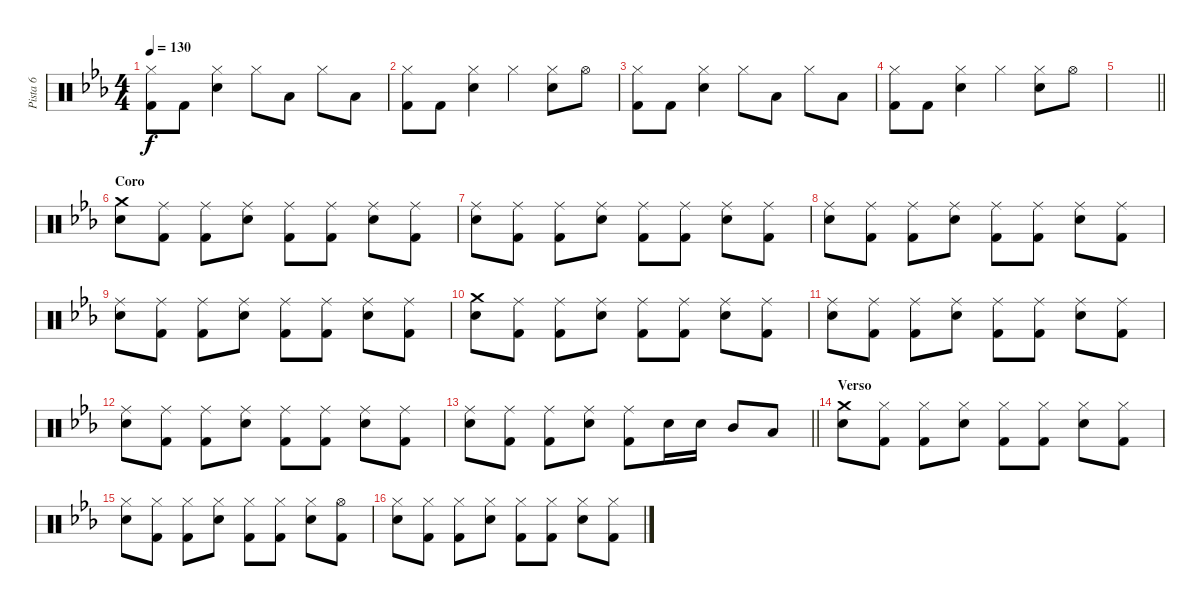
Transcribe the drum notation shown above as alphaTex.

\track ("Pista 6" "Pista 6") {instrument percussion}
\staff {score}
\articulation defaults
\ts (4 4)
\tempo 130
\clef neutral
\ks eb
("Hi-Hat (closed)" "Kick (hit) 2").8{dy f} "Kick (hit) 2".8 ("Hi-Hat (closed)" "Snare (hit) 2").4 "Hi-Hat (closed)".8 "Low Tom (hit)".8 "Hi-Hat (closed)".8 "Low Tom (hit)".8 |
("Hi-Hat (closed)" "Kick (hit) 2").8 "Kick (hit) 2".8 ("Hi-Hat (closed)" "Snare (hit) 2").4 "Hi-Hat (closed)".4 ("Hi-Hat (closed)" "Snare (hit) 2").8 "Hi-Hat (open)".8 |
("Hi-Hat (closed)" "Kick (hit) 2").8 "Kick (hit) 2".8 ("Hi-Hat (closed)" "Snare (hit) 2").4 "Hi-Hat (closed)".8 "Low Tom (hit)".8 "Hi-Hat (closed)".8 "Low Tom (hit)".8 |
("Hi-Hat (closed)" "Kick (hit) 2").8 "Kick (hit) 2".8 ("Hi-Hat (closed)" "Snare (hit) 2").4 "Hi-Hat (closed)".4 ("Hi-Hat (closed)" "Snare (hit) 2").8 "Hi-Hat (open)".8 |
\barLineRight lightlight
|
\section ("" "Coro")
("Crash medium (hit)" "Snare (hit) 2").8 ("Ride (middle)" "Kick (hit) 2").8 ("Ride (middle)" "Kick (hit) 2").8 ("Ride (middle)" "Snare (hit) 2").8 ("Ride (middle)" "Kick (hit) 2").8 ("Ride (middle)" "Kick (hit) 2").8 ("Ride (middle)" "Snare (hit) 2").8 ("Ride (middle)" "Kick (hit) 2").8 |
("Ride (middle)" "Snare (hit) 2").8 ("Ride (middle)" "Kick (hit) 2").8 ("Ride (middle)" "Kick (hit) 2").8 ("Ride (middle)" "Snare (hit) 2").8 ("Ride (middle)" "Kick (hit) 2").8 ("Ride (middle)" "Kick (hit) 2").8 ("Ride (middle)" "Snare (hit) 2").8 ("Ride (middle)" "Kick (hit) 2").8 |
("Ride (middle)" "Snare (hit) 2").8 ("Ride (middle)" "Kick (hit) 2").8 ("Ride (middle)" "Kick (hit) 2").8 ("Ride (middle)" "Snare (hit) 2").8 ("Ride (middle)" "Kick (hit) 2").8 ("Ride (middle)" "Kick (hit) 2").8 ("Ride (middle)" "Snare (hit) 2").8 ("Ride (middle)" "Kick (hit) 2").8 |
("Ride (middle)" "Snare (hit) 2").8 ("Ride (middle)" "Kick (hit) 2").8 ("Ride (middle)" "Kick (hit) 2").8 ("Ride (middle)" "Snare (hit) 2").8 ("Ride (middle)" "Kick (hit) 2").8 ("Ride (middle)" "Kick (hit) 2").8 ("Ride (middle)" "Snare (hit) 2").8 ("Ride (middle)" "Kick (hit) 2").8 |
("Crash medium (hit)" "Snare (hit) 2").8 ("Ride (middle)" "Kick (hit) 2").8 ("Ride (middle)" "Kick (hit) 2").8 ("Ride (middle)" "Snare (hit) 2").8 ("Ride (middle)" "Kick (hit) 2").8 ("Ride (middle)" "Kick (hit) 2").8 ("Ride (middle)" "Snare (hit) 2").8 ("Ride (middle)" "Kick (hit) 2").8 |
("Ride (middle)" "Snare (hit) 2").8 ("Ride (middle)" "Kick (hit) 2").8 ("Ride (middle)" "Kick (hit) 2").8 ("Ride (middle)" "Snare (hit) 2").8 ("Ride (middle)" "Kick (hit) 2").8 ("Ride (middle)" "Kick (hit) 2").8 ("Ride (middle)" "Snare (hit) 2").8 ("Ride (middle)" "Kick (hit) 2").8 |
("Ride (middle)" "Snare (hit) 2").8 ("Ride (middle)" "Kick (hit) 2").8 ("Ride (middle)" "Kick (hit) 2").8 ("Ride (middle)" "Snare (hit) 2").8 ("Ride (middle)" "Kick (hit) 2").8 ("Ride (middle)" "Kick (hit) 2").8 ("Ride (middle)" "Snare (hit) 2").8 ("Ride (middle)" "Kick (hit) 2").8 |
\barLineRight lightlight
("Ride (middle)" "Snare (hit) 2").8 ("Ride (middle)" "Kick (hit) 2").8 ("Ride (middle)" "Kick (hit) 2").8 ("Ride (middle)" "Snare (hit) 2").8 ("Ride (middle)" "Kick (hit) 2").8 "Snare (hit) 2".16 "Snare (hit) 2".16 "Mid Tom (hit)".8 "Low Tom (hit)".8 |
\section ("" "Verso")
("Crash medium (hit)" "Snare (hit) 2").8 ("Hi-Hat (closed)" "Kick (hit) 2").8 ("Hi-Hat (closed)" "Kick (hit) 2").8 ("Hi-Hat (closed)" "Snare (hit) 2").8 ("Hi-Hat (closed)" "Kick (hit) 2").8 ("Hi-Hat (closed)" "Kick (hit) 2").8 ("Hi-Hat (closed)" "Snare (hit) 2").8 ("Hi-Hat (closed)" "Kick (hit) 2").8 |
("Hi-Hat (closed)" "Snare (hit) 2").8 ("Hi-Hat (closed)" "Kick (hit) 2").8 ("Hi-Hat (closed)" "Kick (hit) 2").8 ("Hi-Hat (closed)" "Snare (hit) 2").8 ("Hi-Hat (closed)" "Kick (hit) 2").8 ("Hi-Hat (closed)" "Kick (hit) 2").8 ("Hi-Hat (closed)" "Snare (hit) 2").8 ("Hi-Hat (open)" "Kick (hit) 2").8 |
("Hi-Hat (closed)" "Snare (hit) 2").8 ("Hi-Hat (closed)" "Kick (hit) 2").8 ("Hi-Hat (closed)" "Kick (hit) 2").8 ("Hi-Hat (closed)" "Snare (hit) 2").8 ("Hi-Hat (closed)" "Kick (hit) 2").8 ("Hi-Hat (closed)" "Kick (hit) 2").8 ("Hi-Hat (closed)" "Snare (hit) 2").8 ("Hi-Hat (closed)" "Kick (hit) 2").8
